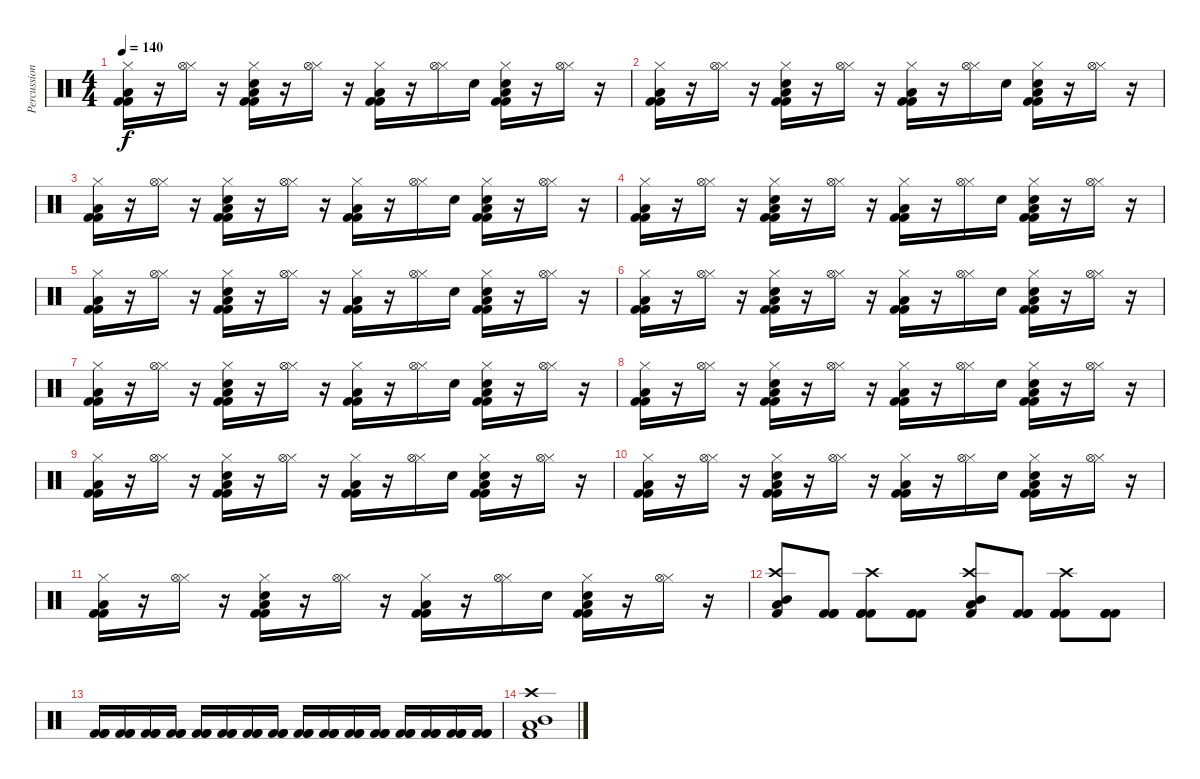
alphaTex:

\track ("Percussion" "Percussion") {instrument percussion}
\staff {score}
\articulation defaults
\ts (4 4)
\tempo 140
\clef neutral
\ks c
("Hi-Hat (closed)" "Low Tom (hit)" "Kick (hit) 2" "Kick (hit) 2").16{dy f} r.16 ("Hi-Hat (closed)" "Hi-Hat (open)").16 r.16 ("Hi-Hat (closed)" "Low Tom (hit)" "Kick (hit) 2" "Kick (hit) 2" "Hand Clap (hit)").16 r.16 ("Hi-Hat (closed)" "Hi-Hat (open)").16 r.16 ("Hi-Hat (closed)" "Low Tom (hit)" "Kick (hit) 2" "Kick (hit) 2").16 r.16 ("Hi-Hat (closed)" "Hi-Hat (open)").16 "Hand Clap (hit)".16 ("Hi-Hat (closed)" "Low Tom (hit)" "Kick (hit) 2" "Kick (hit) 2" "Hand Clap (hit)").16 r.16 ("Hi-Hat (closed)" "Hi-Hat (open)").16 r.16 |
("Hi-Hat (closed)" "Low Tom (hit)" "Kick (hit) 2" "Kick (hit) 2").16 r.16 ("Hi-Hat (closed)" "Hi-Hat (open)").16 r.16 ("Hi-Hat (closed)" "Low Tom (hit)" "Kick (hit) 2" "Kick (hit) 2" "Hand Clap (hit)").16 r.16 ("Hi-Hat (closed)" "Hi-Hat (open)").16 r.16 ("Hi-Hat (closed)" "Low Tom (hit)" "Kick (hit) 2" "Kick (hit) 2").16 r.16 ("Hi-Hat (closed)" "Hi-Hat (open)").16 "Hand Clap (hit)".16 ("Hi-Hat (closed)" "Low Tom (hit)" "Kick (hit) 2" "Kick (hit) 2" "Hand Clap (hit)").16 r.16 ("Hi-Hat (closed)" "Hi-Hat (open)").16 r.16 |
("Hi-Hat (closed)" "Low Tom (hit)" "Kick (hit) 2" "Kick (hit) 2").16 r.16 ("Hi-Hat (closed)" "Hi-Hat (open)").16 r.16 ("Hi-Hat (closed)" "Low Tom (hit)" "Kick (hit) 2" "Kick (hit) 2" "Hand Clap (hit)").16 r.16 ("Hi-Hat (closed)" "Hi-Hat (open)").16 r.16 ("Hi-Hat (closed)" "Low Tom (hit)" "Kick (hit) 2" "Kick (hit) 2").16 r.16 ("Hi-Hat (closed)" "Hi-Hat (open)").16 "Hand Clap (hit)".16 ("Hi-Hat (closed)" "Low Tom (hit)" "Kick (hit) 2" "Kick (hit) 2" "Hand Clap (hit)").16 r.16 ("Hi-Hat (closed)" "Hi-Hat (open)").16 r.16 |
("Hi-Hat (closed)" "Low Tom (hit)" "Kick (hit) 2" "Kick (hit) 2").16 r.16 ("Hi-Hat (closed)" "Hi-Hat (open)").16 r.16 ("Hi-Hat (closed)" "Low Tom (hit)" "Kick (hit) 2" "Kick (hit) 2" "Hand Clap (hit)").16 r.16 ("Hi-Hat (closed)" "Hi-Hat (open)").16 r.16 ("Hi-Hat (closed)" "Low Tom (hit)" "Kick (hit) 2" "Kick (hit) 2").16 r.16 ("Hi-Hat (closed)" "Hi-Hat (open)").16 "Hand Clap (hit)".16 ("Hi-Hat (closed)" "Low Tom (hit)" "Kick (hit) 2" "Kick (hit) 2" "Hand Clap (hit)").16 r.16 ("Hi-Hat (closed)" "Hi-Hat (open)").16 r.16 |
("Hi-Hat (closed)" "Low Tom (hit)" "Kick (hit) 2" "Kick (hit) 2").16 r.16 ("Hi-Hat (closed)" "Hi-Hat (open)").16 r.16 ("Hi-Hat (closed)" "Low Tom (hit)" "Kick (hit) 2" "Kick (hit) 2" "Hand Clap (hit)").16 r.16 ("Hi-Hat (closed)" "Hi-Hat (open)").16 r.16 ("Hi-Hat (closed)" "Low Tom (hit)" "Kick (hit) 2" "Kick (hit) 2").16 r.16 ("Hi-Hat (closed)" "Hi-Hat (open)").16 "Hand Clap (hit)".16 ("Hi-Hat (closed)" "Low Tom (hit)" "Kick (hit) 2" "Kick (hit) 2" "Hand Clap (hit)").16 r.16 ("Hi-Hat (closed)" "Hi-Hat (open)").16 r.16 |
("Hi-Hat (closed)" "Low Tom (hit)" "Kick (hit) 2" "Kick (hit) 2").16 r.16 ("Hi-Hat (closed)" "Hi-Hat (open)").16 r.16 ("Hi-Hat (closed)" "Low Tom (hit)" "Kick (hit) 2" "Kick (hit) 2" "Hand Clap (hit)").16 r.16 ("Hi-Hat (closed)" "Hi-Hat (open)").16 r.16 ("Hi-Hat (closed)" "Low Tom (hit)" "Kick (hit) 2" "Kick (hit) 2").16 r.16 ("Hi-Hat (closed)" "Hi-Hat (open)").16 "Hand Clap (hit)".16 ("Hi-Hat (closed)" "Low Tom (hit)" "Kick (hit) 2" "Kick (hit) 2" "Hand Clap (hit)").16 r.16 ("Hi-Hat (closed)" "Hi-Hat (open)").16 r.16 |
("Hi-Hat (closed)" "Low Tom (hit)" "Kick (hit) 2" "Kick (hit) 2").16 r.16 ("Hi-Hat (closed)" "Hi-Hat (open)").16 r.16 ("Hi-Hat (closed)" "Low Tom (hit)" "Kick (hit) 2" "Kick (hit) 2" "Hand Clap (hit)").16 r.16 ("Hi-Hat (closed)" "Hi-Hat (open)").16 r.16 ("Hi-Hat (closed)" "Low Tom (hit)" "Kick (hit) 2" "Kick (hit) 2").16 r.16 ("Hi-Hat (closed)" "Hi-Hat (open)").16 "Hand Clap (hit)".16 ("Hi-Hat (closed)" "Low Tom (hit)" "Kick (hit) 2" "Kick (hit) 2" "Hand Clap (hit)").16 r.16 ("Hi-Hat (closed)" "Hi-Hat (open)").16 r.16 |
("Hi-Hat (closed)" "Low Tom (hit)" "Kick (hit) 2" "Kick (hit) 2").16 r.16 ("Hi-Hat (closed)" "Hi-Hat (open)").16 r.16 ("Hi-Hat (closed)" "Low Tom (hit)" "Kick (hit) 2" "Kick (hit) 2" "Hand Clap (hit)").16 r.16 ("Hi-Hat (closed)" "Hi-Hat (open)").16 r.16 ("Hi-Hat (closed)" "Low Tom (hit)" "Kick (hit) 2" "Kick (hit) 2").16 r.16 ("Hi-Hat (closed)" "Hi-Hat (open)").16 "Hand Clap (hit)".16 ("Hi-Hat (closed)" "Low Tom (hit)" "Kick (hit) 2" "Kick (hit) 2" "Hand Clap (hit)").16 r.16 ("Hi-Hat (closed)" "Hi-Hat (open)").16 r.16 |
("Hi-Hat (closed)" "Low Tom (hit)" "Kick (hit) 2" "Kick (hit) 2").16 r.16 ("Hi-Hat (closed)" "Hi-Hat (open)").16 r.16 ("Hi-Hat (closed)" "Low Tom (hit)" "Kick (hit) 2" "Kick (hit) 2" "Hand Clap (hit)").16 r.16 ("Hi-Hat (closed)" "Hi-Hat (open)").16 r.16 ("Hi-Hat (closed)" "Low Tom (hit)" "Kick (hit) 2" "Kick (hit) 2").16 r.16 ("Hi-Hat (closed)" "Hi-Hat (open)").16 "Hand Clap (hit)".16 ("Hi-Hat (closed)" "Low Tom (hit)" "Kick (hit) 2" "Kick (hit) 2" "Hand Clap (hit)").16 r.16 ("Hi-Hat (closed)" "Hi-Hat (open)").16 r.16 |
("Hi-Hat (closed)" "Low Tom (hit)" "Kick (hit) 2" "Kick (hit) 2").16 r.16 ("Hi-Hat (closed)" "Hi-Hat (open)").16 r.16 ("Hi-Hat (closed)" "Low Tom (hit)" "Kick (hit) 2" "Kick (hit) 2" "Hand Clap (hit)").16 r.16 ("Hi-Hat (closed)" "Hi-Hat (open)").16 r.16 ("Hi-Hat (closed)" "Low Tom (hit)" "Kick (hit) 2" "Kick (hit) 2").16 r.16 ("Hi-Hat (closed)" "Hi-Hat (open)").16 "Hand Clap (hit)".16 ("Hi-Hat (closed)" "Low Tom (hit)" "Kick (hit) 2" "Kick (hit) 2" "Hand Clap (hit)").16 r.16 ("Hi-Hat (closed)" "Hi-Hat (open)").16 r.16 |
("Hi-Hat (closed)" "Low Tom (hit)" "Kick (hit) 2" "Kick (hit) 2").16 r.16 ("Hi-Hat (closed)" "Hi-Hat (open)").16 r.16 ("Hi-Hat (closed)" "Low Tom (hit)" "Kick (hit) 2" "Kick (hit) 2" "Hand Clap (hit)").16 r.16 ("Hi-Hat (closed)" "Hi-Hat (open)").16 r.16 ("Hi-Hat (closed)" "Low Tom (hit)" "Kick (hit) 2" "Kick (hit) 2").16 r.16 ("Hi-Hat (closed)" "Hi-Hat (open)").16 "Hand Clap (hit)".16 ("Hi-Hat (closed)" "Low Tom (hit)" "Kick (hit) 2" "Kick (hit) 2" "Hand Clap (hit)").16 r.16 ("Hi-Hat (closed)" "Hi-Hat (open)").16 r.16 |
("Crash high (hit)" "Low Floor Tom (hit)" "Mid Tom (hit)" "Kick (hit) 2").8 ("Kick (hit) 2" "Kick (hit) 2" "Kick (hit) 2").8 ("Crash high (hit)" "Kick (hit) 2" "Kick (hit) 2" "Kick (hit) 2").8 ("Kick (hit) 2" "Kick (hit) 2" "Kick (hit) 2").8 ("Crash high (hit)" "Low Floor Tom (hit)" "Mid Tom (hit)" "Kick (hit) 2").8 ("Kick (hit) 2" "Kick (hit) 2" "Kick (hit) 2").8 ("Crash high (hit)" "Kick (hit) 2" "Kick (hit) 2" "Kick (hit) 2").8 ("Kick (hit) 2" "Kick (hit) 2" "Kick (hit) 2").8 |
("Kick (hit) 2" "Kick (hit) 2" "Kick (hit) 2").16 ("Kick (hit) 2" "Kick (hit) 2" "Kick (hit) 2").16 ("Kick (hit) 2" "Kick (hit) 2" "Kick (hit) 2").16 ("Kick (hit) 2" "Kick (hit) 2" "Kick (hit) 2").16 ("Kick (hit) 2" "Kick (hit) 2" "Kick (hit) 2").16 ("Kick (hit) 2" "Kick (hit) 2" "Kick (hit) 2").16 ("Kick (hit) 2" "Kick (hit) 2" "Kick (hit) 2").16 ("Kick (hit) 2" "Kick (hit) 2" "Kick (hit) 2").16 ("Kick (hit) 2" "Kick (hit) 2" "Kick (hit) 2").16 ("Kick (hit) 2" "Kick (hit) 2" "Kick (hit) 2").16 ("Kick (hit) 2" "Kick (hit) 2" "Kick (hit) 2").16 ("Kick (hit) 2" "Kick (hit) 2" "Kick (hit) 2").16 ("Kick (hit) 2" "Kick (hit) 2" "Kick (hit) 2").16 ("Kick (hit) 2" "Kick (hit) 2" "Kick (hit) 2").16 ("Kick (hit) 2" "Kick (hit) 2" "Kick (hit) 2").16 ("Kick (hit) 2" "Kick (hit) 2" "Kick (hit) 2").16 |
("Crash high (hit)" "Low Floor Tom (hit)" "Mid Tom (hit)" "Kick (hit) 2").1
